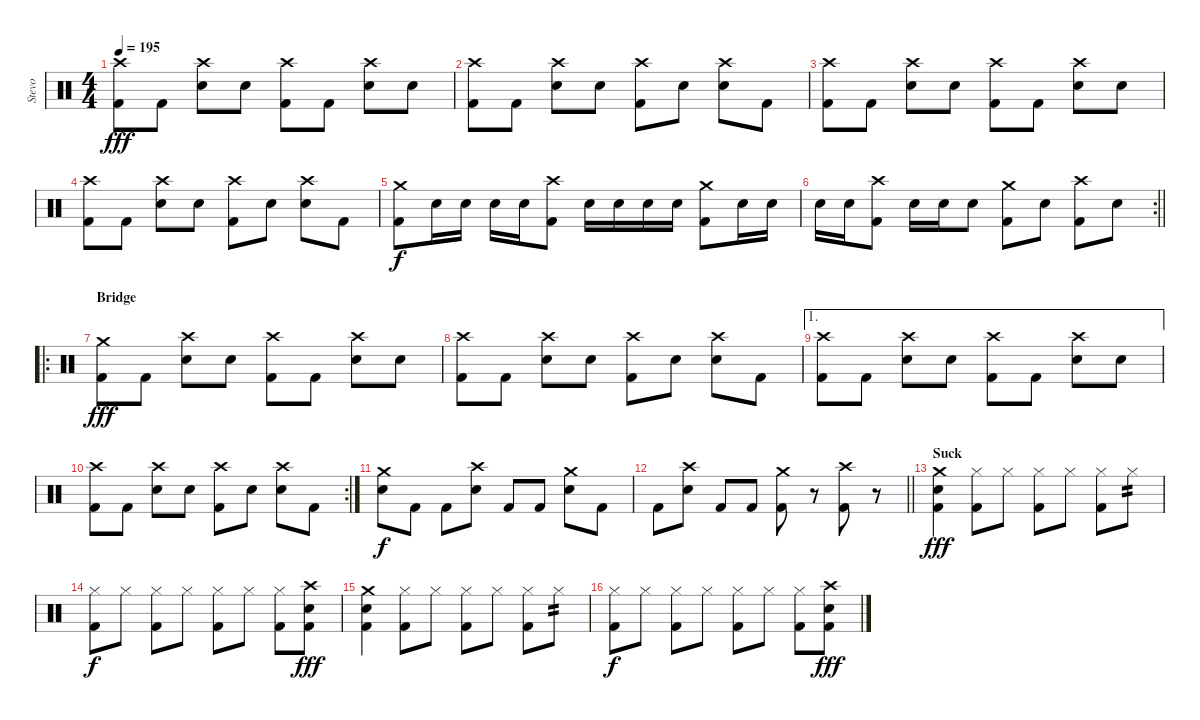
\track ("Stevo" "Stevo") {instrument percussion}
\staff {score}
\articulation defaults
\ts (4 4)
\tempo 195
\clef neutral
\ks c
("Crash high (hit)" "Kick (hit) 2").8{dy fff} "Kick (hit) 2".8 ("Crash high (hit)" "Electric Snare (hit)").8 "Snare (hit)".8 ("Crash high (hit)" "Kick (hit) 2").8 "Kick (hit) 2".8 ("Crash high (hit)" "Electric Snare (hit)").8 "Snare (hit)".8 |
("Crash high (hit)" "Kick (hit) 2").8 "Kick (hit) 2".8 ("Crash high (hit)" "Electric Snare (hit)").8 "Snare (hit)".8 ("Crash high (hit)" "Kick (hit) 2").8 "Electric Snare (hit)".8 ("Crash high (hit)" "Electric Snare (hit)").8 "Kick (hit) 2".8 |
("Crash high (hit)" "Kick (hit) 2").8 "Kick (hit) 2".8 ("Crash high (hit)" "Electric Snare (hit)").8 "Snare (hit)".8 ("Crash high (hit)" "Kick (hit) 2").8 "Kick (hit) 2".8 ("Crash high (hit)" "Electric Snare (hit)").8 "Snare (hit)".8 |
("Crash high (hit)" "Kick (hit) 2").8 "Kick (hit) 2".8 ("Crash high (hit)" "Electric Snare (hit)").8 "Snare (hit)".8 ("Crash high (hit)" "Kick (hit) 2").8 "Electric Snare (hit)".8 ("Crash high (hit)" "Electric Snare (hit)").8 "Kick (hit) 2".8 |
("Crash medium (hit)" "Kick (hit) 2").8{dy f} "Electric Snare (hit)".16 "Electric Snare (hit)".16 "Electric Snare (hit)".16 "Electric Snare (hit)".16 ("Crash high (hit)" "Kick (hit) 2").8 "Electric Snare (hit)".16 "Electric Snare (hit)".16 "Electric Snare (hit)".16 "Electric Snare (hit)".16 ("Crash medium (hit)" "Kick (hit) 2").8 "Electric Snare (hit)".16 "Electric Snare (hit)".16 |
\rc 2
\barLineRight lightlight "Electric Snare (hit)".16 "Electric Snare (hit)".16
("Crash high (hit)" "Kick (hit) 2").8 "Electric Snare (hit)".16 "Electric Snare (hit)".16 "Electric Snare (hit)".8 ("Crash medium (hit)" "Kick (hit) 2").8 "Electric Snare (hit)".8 ("Crash high (hit)" "Kick (hit) 2").8 "Electric Snare (hit)".8 |
\ro
\section ("" "Bridge")
("Crash medium (hit)" "Kick (hit) 2").8{dy fff} "Kick (hit) 2".8 ("Crash high (hit)" "Electric Snare (hit)").8 "Snare (hit)".8 ("Crash high (hit)" "Kick (hit) 2").8 "Kick (hit) 2".8 ("Crash high (hit)" "Electric Snare (hit)").8 "Snare (hit)".8 |
("Crash high (hit)" "Kick (hit) 2").8 "Kick (hit) 2".8 ("Crash high (hit)" "Electric Snare (hit)").8 "Snare (hit)".8 ("Crash high (hit)" "Kick (hit) 2").8 "Electric Snare (hit)".8 ("Crash high (hit)" "Electric Snare (hit)").8 "Kick (hit) 2".8 |
\ae 1
("Crash high (hit)" "Kick (hit) 2").8 "Kick (hit) 2".8 ("Crash high (hit)" "Electric Snare (hit)").8 "Snare (hit)".8 ("Crash high (hit)" "Kick (hit) 2").8 "Kick (hit) 2".8 ("Crash high (hit)" "Electric Snare (hit)").8 "Snare (hit)".8 |
\rc 2
("Crash high (hit)" "Kick (hit) 2").8 "Kick (hit) 2".8 ("Crash high (hit)" "Electric Snare (hit)").8 "Snare (hit)".8 ("Crash high (hit)" "Kick (hit) 2").8 "Electric Snare (hit)".8 ("Crash high (hit)" "Electric Snare (hit)").8 "Kick (hit) 2".8 |
("Crash medium (hit)" "Electric Snare (hit)").8{dy f} "Kick (hit) 2".8 "Kick (hit) 2".8 ("Crash high (hit)" "Electric Snare (hit)").8 "Kick (hit) 2".8 "Kick (hit) 2".8 ("Crash medium (hit)" "Electric Snare (hit)").8 "Kick (hit) 2".8 |
\barLineRight lightlight "Kick (hit) 2".8
("Crash high (hit)" "Electric Snare (hit)").8 "Kick (hit) 2".8 "Kick (hit) 2".8 ("Crash medium (hit)" "Kick (hit) 2").8 r.8 ("Crash high (hit)" "Kick (hit) 2").8 r.8 |
\section ("" "Suck")
("Crash medium (hit)" "Electric Snare (hit)" "Kick (hit) 2").4{dy fff volume 16} ("Hi-Hat (closed)" "Kick (hit) 2").8 "Hi-Hat (closed)".8 ("Hi-Hat (closed)" "Kick (hit) 2").8 "Hi-Hat (closed)".8 ("Hi-Hat (closed)" "Kick (hit) 2").8 "Hi-Hat (closed)".8{tp 2} |
("Hi-Hat (closed)" "Kick (hit) 2").8{dy f} "Hi-Hat (closed)".8 ("Hi-Hat (closed)" "Kick (hit) 2").8 "Hi-Hat (closed)".8 ("Hi-Hat (closed)" "Kick (hit) 2").8 "Hi-Hat (closed)".8 ("Hi-Hat (closed)" "Kick (hit) 2").8 ("Crash high (hit)" "Electric Snare (hit)" "Kick (hit) 2").8{dy fff} |
("Crash medium (hit)" "Electric Snare (hit)" "Kick (hit) 2").4 ("Hi-Hat (closed)" "Kick (hit) 2").8 "Hi-Hat (closed)".8 ("Hi-Hat (closed)" "Kick (hit) 2").8 "Hi-Hat (closed)".8 ("Hi-Hat (closed)" "Kick (hit) 2").8 "Hi-Hat (closed)".8{tp 2} |
("Hi-Hat (closed)" "Kick (hit) 2").8{dy f} "Hi-Hat (closed)".8 ("Hi-Hat (closed)" "Kick (hit) 2").8 "Hi-Hat (closed)".8 ("Hi-Hat (closed)" "Kick (hit) 2").8 "Hi-Hat (closed)".8 ("Hi-Hat (closed)" "Kick (hit) 2").8 ("Crash high (hit)" "Electric Snare (hit)" "Kick (hit) 2").8{dy fff}
